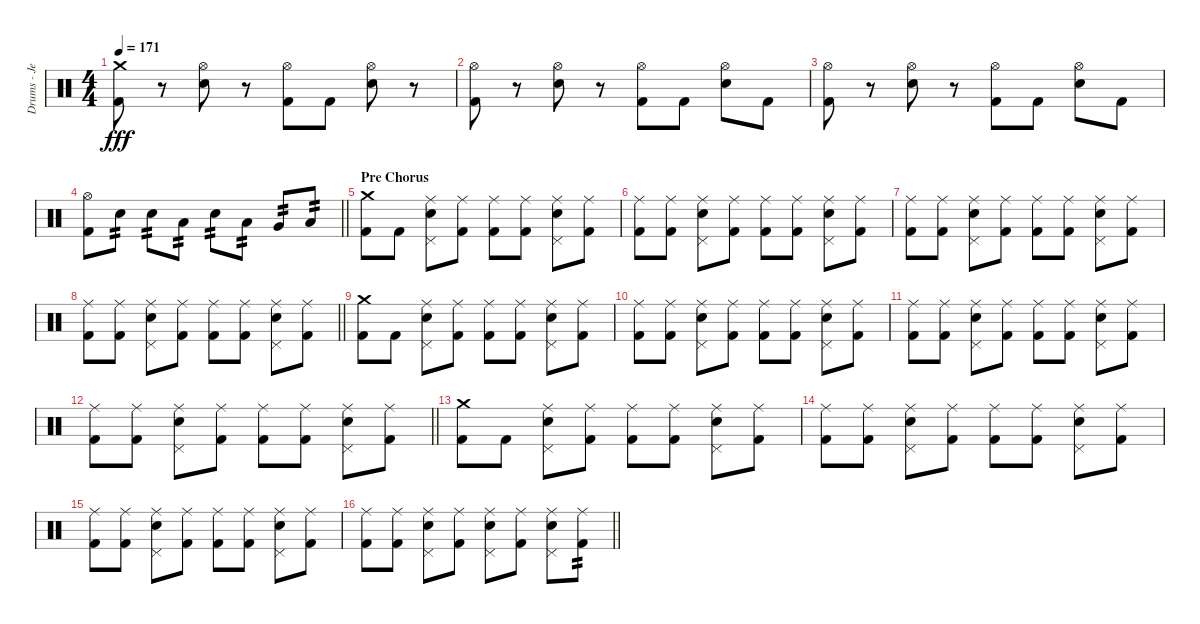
\track ("Drums - Jerinx" "Drums - Je") {instrument percussion}
\staff {score}
\articulation defaults
\ts (4 4)
\tempo 171
\clef neutral
\ks c
("Kick (hit) 2" "Crash medium (hit)").8{dy fff} r.8 ("Hi-Hat (open)" "Snare (hit) 2").8 r.8 ("Hi-Hat (open)" "Kick (hit) 2").8 "Kick (hit) 2".8 ("Hi-Hat (open)" "Snare (hit) 2").8 r.8 |
("Hi-Hat (open)" "Kick (hit) 2").8 r.8 ("Hi-Hat (open)" "Snare (hit) 2").8 r.8 ("Hi-Hat (open)" "Kick (hit) 2").8 "Kick (hit) 2".8 ("Hi-Hat (open)" "Snare (hit) 2").8 "Kick (hit) 2".8 |
("Hi-Hat (open)" "Kick (hit) 2").8 r.8 ("Hi-Hat (open)" "Snare (hit) 2").8 r.8 ("Hi-Hat (open)" "Kick (hit) 2").8 "Kick (hit) 2".8 ("Hi-Hat (open)" "Snare (hit) 2").8 "Kick (hit) 2".8 |
\barLineRight lightlight
("Hi-Hat (open)" "Kick (hit) 2").8 "Snare (hit) 2".8{tp 2} "Snare (hit) 2".8{tp 2} "Low Tom (hit)".8{tp 2} "Snare (hit) 2".8{tp 2} "Low Tom (hit)".8{tp 2} "Very Low Tom (hit)".8{tp 2} "Low Floor Tom (hit)".8{tp 2} |
\section ("" "Pre Chorus")
("Kick (hit) 2" "Crash medium (hit)").8 "Kick (hit) 2".8 ("Pedal Hi-Hat (hit)" "Snare (hit) 2" "Ride (middle)").8 ("Kick (hit) 2" "Ride (middle)").8 ("Kick (hit) 2" "Ride (middle)").8 ("Kick (hit) 2" "Ride (middle)").8 ("Pedal Hi-Hat (hit)" "Snare (hit) 2" "Ride (middle)").8 ("Kick (hit) 2" "Ride (middle)").8 |
("Kick (hit) 2" "Ride (middle)").8 ("Kick (hit) 2" "Ride (middle)").8 ("Pedal Hi-Hat (hit)" "Snare (hit) 2" "Ride (middle)").8 ("Kick (hit) 2" "Ride (middle)").8 ("Kick (hit) 2" "Ride (middle)").8 ("Kick (hit) 2" "Ride (middle)").8 ("Pedal Hi-Hat (hit)" "Snare (hit) 2" "Ride (middle)").8 ("Kick (hit) 2" "Ride (middle)").8 |
("Kick (hit) 2" "Ride (middle)").8 ("Kick (hit) 2" "Ride (middle)").8 ("Pedal Hi-Hat (hit)" "Snare (hit) 2" "Ride (middle)").8 ("Kick (hit) 2" "Ride (middle)").8 ("Kick (hit) 2" "Ride (middle)").8 ("Kick (hit) 2" "Ride (middle)").8 ("Pedal Hi-Hat (hit)" "Snare (hit) 2" "Ride (middle)").8 ("Kick (hit) 2" "Ride (middle)").8 |
\barLineRight lightlight
("Kick (hit) 2" "Ride (middle)").8 ("Kick (hit) 2" "Ride (middle)").8 ("Pedal Hi-Hat (hit)" "Snare (hit) 2" "Ride (middle)").8 ("Kick (hit) 2" "Ride (middle)").8 ("Kick (hit) 2" "Ride (middle)").8 ("Kick (hit) 2" "Ride (middle)").8 ("Pedal Hi-Hat (hit)" "Snare (hit) 2" "Ride (middle)").8 ("Kick (hit) 2" "Ride (middle)").8 |
("Kick (hit) 2" "Crash medium (hit)").8 "Kick (hit) 2".8 ("Pedal Hi-Hat (hit)" "Snare (hit) 2" "Ride (middle)").8 ("Kick (hit) 2" "Ride (middle)").8 ("Kick (hit) 2" "Ride (middle)").8 ("Kick (hit) 2" "Ride (middle)").8 ("Pedal Hi-Hat (hit)" "Snare (hit) 2" "Ride (middle)").8 ("Kick (hit) 2" "Ride (middle)").8 |
("Kick (hit) 2" "Ride (middle)").8 ("Kick (hit) 2" "Ride (middle)").8 ("Pedal Hi-Hat (hit)" "Snare (hit) 2" "Ride (middle)").8 ("Kick (hit) 2" "Ride (middle)").8 ("Kick (hit) 2" "Ride (middle)").8 ("Kick (hit) 2" "Ride (middle)").8 ("Pedal Hi-Hat (hit)" "Snare (hit) 2" "Ride (middle)").8 ("Kick (hit) 2" "Ride (middle)").8 |
("Kick (hit) 2" "Ride (middle)").8 ("Kick (hit) 2" "Ride (middle)").8 ("Pedal Hi-Hat (hit)" "Snare (hit) 2" "Ride (middle)").8 ("Kick (hit) 2" "Ride (middle)").8 ("Kick (hit) 2" "Ride (middle)").8 ("Kick (hit) 2" "Ride (middle)").8 ("Pedal Hi-Hat (hit)" "Snare (hit) 2" "Ride (middle)").8 ("Kick (hit) 2" "Ride (middle)").8 |
\barLineRight lightlight
("Kick (hit) 2" "Ride (middle)").8 ("Kick (hit) 2" "Ride (middle)").8 ("Pedal Hi-Hat (hit)" "Snare (hit) 2" "Ride (middle)").8 ("Kick (hit) 2" "Ride (middle)").8 ("Kick (hit) 2" "Ride (middle)").8 ("Kick (hit) 2" "Ride (middle)").8 ("Pedal Hi-Hat (hit)" "Snare (hit) 2" "Ride (middle)").8 ("Kick (hit) 2" "Ride (middle)").8 |
("Kick (hit) 2" "Crash medium (hit)").8 "Kick (hit) 2".8 ("Pedal Hi-Hat (hit)" "Snare (hit) 2" "Ride (middle)").8 ("Kick (hit) 2" "Ride (middle)").8 ("Kick (hit) 2" "Ride (middle)").8 ("Kick (hit) 2" "Ride (middle)").8 ("Pedal Hi-Hat (hit)" "Snare (hit) 2" "Ride (middle)").8 ("Kick (hit) 2" "Ride (middle)").8 |
("Kick (hit) 2" "Ride (middle)").8 ("Kick (hit) 2" "Ride (middle)").8 ("Pedal Hi-Hat (hit)" "Snare (hit) 2" "Ride (middle)").8 ("Kick (hit) 2" "Ride (middle)").8 ("Kick (hit) 2" "Ride (middle)").8 ("Kick (hit) 2" "Ride (middle)").8 ("Pedal Hi-Hat (hit)" "Snare (hit) 2" "Ride (middle)").8 ("Kick (hit) 2" "Ride (middle)").8 |
("Kick (hit) 2" "Ride (middle)").8 ("Kick (hit) 2" "Ride (middle)").8 ("Pedal Hi-Hat (hit)" "Snare (hit) 2" "Ride (middle)").8 ("Kick (hit) 2" "Ride (middle)").8 ("Kick (hit) 2" "Ride (middle)").8 ("Kick (hit) 2" "Ride (middle)").8 ("Pedal Hi-Hat (hit)" "Snare (hit) 2" "Ride (middle)").8 ("Kick (hit) 2" "Ride (middle)").8 |
\barLineRight lightlight
("Kick (hit) 2" "Ride (middle)").8 ("Kick (hit) 2" "Ride (middle)").8 ("Pedal Hi-Hat (hit)" "Snare (hit) 2" "Ride (middle)").8 ("Kick (hit) 2" "Ride (middle)").8 ("Pedal Hi-Hat (hit)" "Snare (hit) 2" "Ride (middle)").8 ("Kick (hit) 2" "Ride (middle)").8 ("Pedal Hi-Hat (hit)" "Snare (hit) 2" "Ride (middle)").8 ("Kick (hit) 2" "Ride (middle)").8{tp 2}
